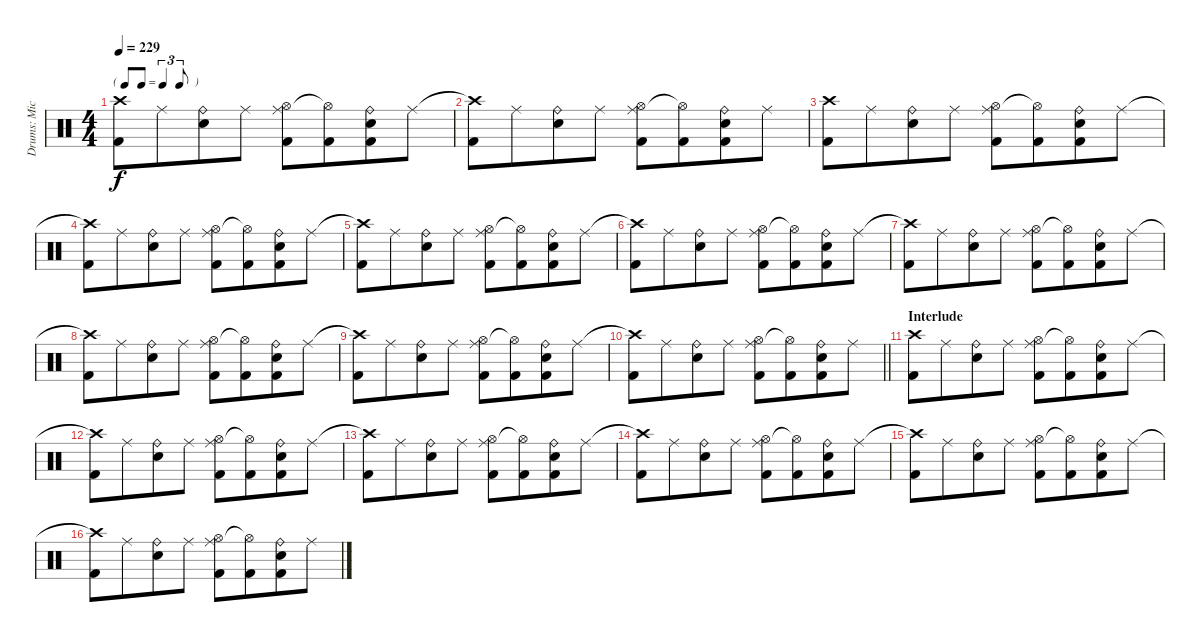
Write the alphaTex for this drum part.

\track ("Drums: Mick" "Drums: Mic") {instrument percussion}
\staff {score}
\articulation defaults
\ts (4 4)
\tf triplet8th
\tempo 229
\clef neutral
\ks c
("Crash high (hit)"{t} "Kick (hit) 2").8{dy f} "Ride (middle)".8{beam merge} ("Ride (bell)" "Snare (hit) 2").8 "Ride (middle)".8 ("Ride (middle)" "Hi-Hat (open)" "Kick (hit) 2").8 ("Hi-Hat (open)"{t} "Kick (hit) 2").8{beam merge} ("Ride (bell)" "Snare (hit) 2" "Kick (hit) 2").8 "Ride (middle)".8 |
("Crash high (hit)"{t} "Kick (hit) 2").8 "Ride (middle)".8{beam merge} ("Ride (bell)" "Snare (hit) 2").8 "Ride (middle)".8 ("Ride (middle)" "Hi-Hat (open)" "Kick (hit) 2").8 ("Hi-Hat (open)"{t} "Kick (hit) 2").8{beam merge} ("Ride (bell)" "Snare (hit) 2" "Kick (hit) 2").8 "Ride (middle)".8 |
("Crash high (hit)" "Kick (hit) 2").8 "Ride (middle)".8{beam merge} ("Ride (bell)" "Snare (hit) 2").8 "Ride (middle)".8 ("Ride (middle)" "Hi-Hat (open)" "Kick (hit) 2").8 ("Hi-Hat (open)"{t} "Kick (hit) 2").8{beam merge} ("Ride (bell)" "Snare (hit) 2" "Kick (hit) 2").8 "Ride (middle)".8 |
("Crash high (hit)"{t} "Kick (hit) 2").8 "Ride (middle)".8{beam merge} ("Ride (bell)" "Snare (hit) 2").8 "Ride (middle)".8 ("Ride (middle)" "Hi-Hat (open)" "Kick (hit) 2").8 ("Hi-Hat (open)"{t} "Kick (hit) 2").8{beam merge} ("Ride (bell)" "Snare (hit) 2" "Kick (hit) 2").8 "Ride (middle)".8 |
("Crash high (hit)"{t} "Kick (hit) 2").8 "Ride (middle)".8{beam merge} ("Ride (bell)" "Snare (hit) 2").8 "Ride (middle)".8 ("Ride (middle)" "Hi-Hat (open)" "Kick (hit) 2").8 ("Hi-Hat (open)"{t} "Kick (hit) 2").8{beam merge} ("Ride (bell)" "Snare (hit) 2" "Kick (hit) 2").8 "Ride (middle)".8 |
("Crash high (hit)"{t} "Kick (hit) 2").8 "Ride (middle)".8{beam merge} ("Ride (bell)" "Snare (hit) 2").8 "Ride (middle)".8 ("Ride (middle)" "Hi-Hat (open)" "Kick (hit) 2").8 ("Hi-Hat (open)"{t} "Kick (hit) 2").8{beam merge} ("Ride (bell)" "Snare (hit) 2" "Kick (hit) 2").8 "Ride (middle)".8 |
("Crash high (hit)"{t} "Kick (hit) 2").8 "Ride (middle)".8{beam merge} ("Ride (bell)" "Snare (hit) 2").8 "Ride (middle)".8 ("Ride (middle)" "Hi-Hat (open)" "Kick (hit) 2").8 ("Hi-Hat (open)"{t} "Kick (hit) 2").8{beam merge} ("Ride (bell)" "Snare (hit) 2" "Kick (hit) 2").8 "Ride (middle)".8 |
("Crash high (hit)"{t} "Kick (hit) 2").8 "Ride (middle)".8{beam merge} ("Ride (bell)" "Snare (hit) 2").8 "Ride (middle)".8 ("Ride (middle)" "Hi-Hat (open)" "Kick (hit) 2").8 ("Hi-Hat (open)"{t} "Kick (hit) 2").8{beam merge} ("Ride (bell)" "Snare (hit) 2" "Kick (hit) 2").8 "Ride (middle)".8 |
("Crash high (hit)"{t} "Kick (hit) 2").8 "Ride (middle)".8{beam merge} ("Ride (bell)" "Snare (hit) 2").8 "Ride (middle)".8 ("Ride (middle)" "Hi-Hat (open)" "Kick (hit) 2").8 ("Hi-Hat (open)"{t} "Kick (hit) 2").8{beam merge} ("Ride (bell)" "Snare (hit) 2" "Kick (hit) 2").8 "Ride (middle)".8 |
\barLineRight lightlight
("Crash high (hit)"{t} "Kick (hit) 2").8 "Ride (middle)".8{beam merge} ("Ride (bell)" "Snare (hit) 2").8 "Ride (middle)".8 ("Ride (middle)" "Hi-Hat (open)" "Kick (hit) 2").8 ("Hi-Hat (open)"{t} "Kick (hit) 2").8{beam merge} ("Ride (bell)" "Snare (hit) 2" "Kick (hit) 2").8 "Ride (middle)".8 |
\section ("" "Interlude")
("Crash high (hit)" "Kick (hit) 2").8 "Ride (middle)".8{beam merge} ("Ride (bell)" "Snare (hit) 2").8 "Ride (middle)".8 ("Ride (middle)" "Hi-Hat (open)" "Kick (hit) 2").8 ("Hi-Hat (open)"{t} "Kick (hit) 2").8{beam merge} ("Ride (bell)" "Snare (hit) 2" "Kick (hit) 2").8 "Ride (middle)".8 |
("Crash high (hit)"{t} "Kick (hit) 2").8 "Ride (middle)".8{beam merge} ("Ride (bell)" "Snare (hit) 2").8 "Ride (middle)".8 ("Ride (middle)" "Hi-Hat (open)" "Kick (hit) 2").8 ("Hi-Hat (open)"{t} "Kick (hit) 2").8{beam merge} ("Ride (bell)" "Snare (hit) 2" "Kick (hit) 2").8 "Ride (middle)".8 |
("Crash high (hit)"{t} "Kick (hit) 2").8 "Ride (middle)".8{beam merge} ("Ride (bell)" "Snare (hit) 2").8 "Ride (middle)".8 ("Ride (middle)" "Hi-Hat (open)" "Kick (hit) 2").8 ("Hi-Hat (open)"{t} "Kick (hit) 2").8{beam merge} ("Ride (bell)" "Snare (hit) 2" "Kick (hit) 2").8 "Ride (middle)".8 |
("Crash high (hit)"{t} "Kick (hit) 2").8 "Ride (middle)".8{beam merge} ("Ride (bell)" "Snare (hit) 2").8 "Ride (middle)".8 ("Ride (middle)" "Hi-Hat (open)" "Kick (hit) 2").8 ("Hi-Hat (open)"{t} "Kick (hit) 2").8{beam merge} ("Ride (bell)" "Snare (hit) 2" "Kick (hit) 2").8 "Ride (middle)".8 |
("Crash high (hit)"{t} "Kick (hit) 2").8 "Ride (middle)".8{beam merge} ("Ride (bell)" "Snare (hit) 2").8 "Ride (middle)".8 ("Ride (middle)" "Hi-Hat (open)" "Kick (hit) 2").8 ("Hi-Hat (open)"{t} "Kick (hit) 2").8{beam merge} ("Ride (bell)" "Snare (hit) 2" "Kick (hit) 2").8 "Ride (middle)".8 |
("Crash high (hit)"{t} "Kick (hit) 2").8 "Ride (middle)".8{beam merge} ("Ride (bell)" "Snare (hit) 2").8 "Ride (middle)".8 ("Ride (middle)" "Hi-Hat (open)" "Kick (hit) 2").8 ("Hi-Hat (open)"{t} "Kick (hit) 2").8{beam merge} ("Ride (bell)" "Snare (hit) 2" "Kick (hit) 2").8 "Ride (middle)".8
